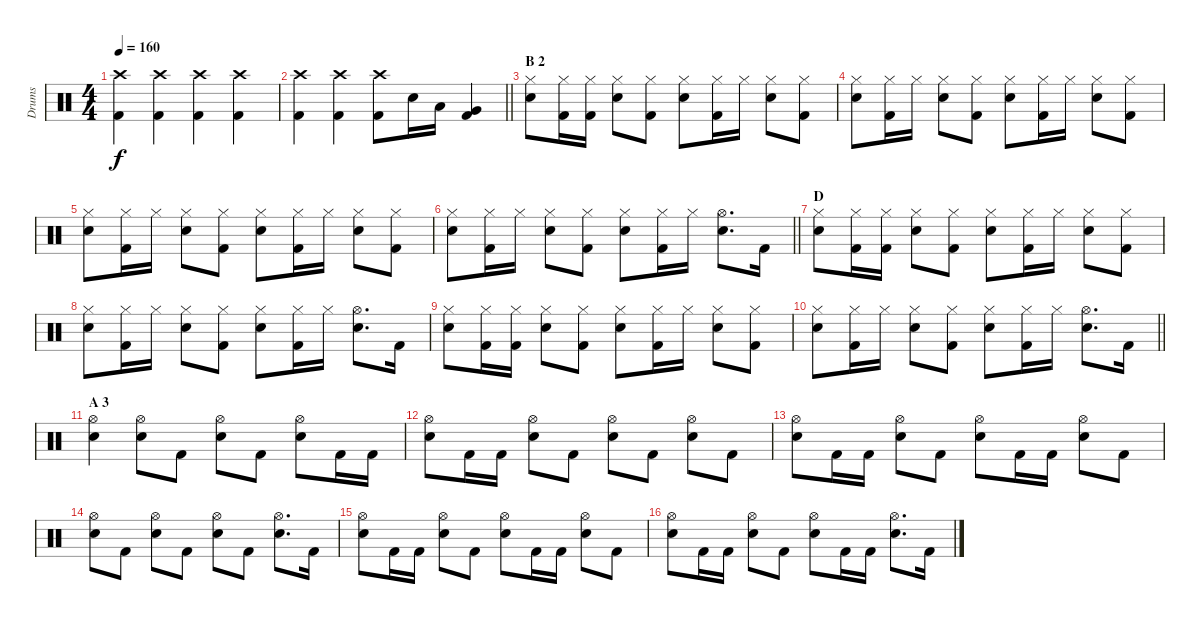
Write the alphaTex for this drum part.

\track ("Drums" "Drums") {instrument percussion}
\staff {score}
\articulation defaults
\ts (4 4)
\tempo 160
\clef neutral
\ks c
("Crash high (hit)" "Kick (hit) 2").4{dy f} ("Crash high (hit)" "Kick (hit) 2").4 ("Crash high (hit)" "Kick (hit) 2").4 ("Crash high (hit)" "Kick (hit) 2").4 |
\barLineRight lightlight
("Crash high (hit)" "Kick (hit) 2").4 ("Crash high (hit)" "Kick (hit) 2").4 ("Crash high (hit)" "Kick (hit) 2").8 "Snare (hit) 2".16 "Low Tom (hit)".16 ("Very Low Tom (hit)" "Kick (hit) 2").4 |
\section ("" "B 2")
("Hi-Hat (closed)" "Snare (hit) 2").8 ("Hi-Hat (closed)" "Kick (hit) 2").16 ("Hi-Hat (closed)" "Kick (hit) 2").16 ("Hi-Hat (closed)" "Snare (hit) 2").8 ("Hi-Hat (closed)" "Kick (hit) 2").8 ("Hi-Hat (closed)" "Snare (hit) 2").8 ("Hi-Hat (closed)" "Kick (hit) 2").16 "Hi-Hat (closed)".16 ("Hi-Hat (closed)" "Snare (hit) 2").8 ("Hi-Hat (closed)" "Kick (hit) 2").8 |
("Hi-Hat (closed)" "Snare (hit) 2").8 ("Hi-Hat (closed)" "Kick (hit) 2").16 "Hi-Hat (closed)".16 ("Hi-Hat (closed)" "Snare (hit) 2").8 ("Hi-Hat (closed)" "Kick (hit) 2").8 ("Hi-Hat (closed)" "Snare (hit) 2").8 ("Hi-Hat (closed)" "Kick (hit) 2").16 "Hi-Hat (closed)".16 ("Hi-Hat (closed)" "Snare (hit) 2").8 ("Hi-Hat (closed)" "Kick (hit) 2").8 |
("Hi-Hat (closed)" "Snare (hit) 2").8 ("Hi-Hat (closed)" "Kick (hit) 2").16 "Hi-Hat (closed)".16 ("Hi-Hat (closed)" "Snare (hit) 2").8 ("Hi-Hat (closed)" "Kick (hit) 2").8 ("Hi-Hat (closed)" "Snare (hit) 2").8 ("Hi-Hat (closed)" "Kick (hit) 2").16 "Hi-Hat (closed)".16 ("Hi-Hat (closed)" "Snare (hit) 2").8 ("Hi-Hat (closed)" "Kick (hit) 2").8 |
\barLineRight lightlight
("Hi-Hat (closed)" "Snare (hit) 2").8 ("Hi-Hat (closed)" "Kick (hit) 2").16 "Hi-Hat (closed)".16 ("Hi-Hat (closed)" "Snare (hit) 2").8 ("Hi-Hat (closed)" "Kick (hit) 2").8 ("Hi-Hat (closed)" "Snare (hit) 2").8 ("Hi-Hat (closed)" "Kick (hit) 2").16 "Hi-Hat (closed)".16 ("Hi-Hat (open)" "Snare (hit) 2").8{d} "Kick (hit) 2".16 |
\section ("" "D")
("Hi-Hat (closed)" "Snare (hit) 2").8 ("Hi-Hat (closed)" "Kick (hit) 2").16 ("Hi-Hat (closed)" "Kick (hit) 2").16 ("Hi-Hat (closed)" "Snare (hit) 2").8 ("Hi-Hat (closed)" "Kick (hit) 2").8 ("Hi-Hat (closed)" "Snare (hit) 2").8 ("Hi-Hat (closed)" "Kick (hit) 2").16 "Hi-Hat (closed)".16 ("Hi-Hat (closed)" "Snare (hit) 2").8 ("Hi-Hat (closed)" "Kick (hit) 2").8 |
("Hi-Hat (closed)" "Snare (hit) 2").8 ("Hi-Hat (closed)" "Kick (hit) 2").16 "Hi-Hat (closed)".16 ("Hi-Hat (closed)" "Snare (hit) 2").8 ("Hi-Hat (closed)" "Kick (hit) 2").8 ("Hi-Hat (closed)" "Snare (hit) 2").8 ("Hi-Hat (closed)" "Kick (hit) 2").16 "Hi-Hat (closed)".16 ("Hi-Hat (open)" "Snare (hit) 2").8{d} "Kick (hit) 2".16 |
("Hi-Hat (closed)" "Snare (hit) 2").8 ("Hi-Hat (closed)" "Kick (hit) 2").16 ("Hi-Hat (closed)" "Kick (hit) 2").16 ("Hi-Hat (closed)" "Snare (hit) 2").8 ("Hi-Hat (closed)" "Kick (hit) 2").8 ("Hi-Hat (closed)" "Snare (hit) 2").8 ("Hi-Hat (closed)" "Kick (hit) 2").16 "Hi-Hat (closed)".16 ("Hi-Hat (closed)" "Snare (hit) 2").8 ("Hi-Hat (closed)" "Kick (hit) 2").8 |
\barLineRight lightlight
("Hi-Hat (closed)" "Snare (hit) 2").8 ("Hi-Hat (closed)" "Kick (hit) 2").16 "Hi-Hat (closed)".16 ("Hi-Hat (closed)" "Snare (hit) 2").8 ("Hi-Hat (closed)" "Kick (hit) 2").8 ("Hi-Hat (closed)" "Snare (hit) 2").8 ("Hi-Hat (closed)" "Kick (hit) 2").16 "Hi-Hat (closed)".16 ("Hi-Hat (open)" "Snare (hit) 2").8{d} "Kick (hit) 2".16 |
\section ("" "A 3")
("Hi-Hat (open)" "Snare (hit) 2").4 ("Hi-Hat (open)" "Snare (hit) 2").8 "Kick (hit) 2".8 ("Hi-Hat (open)" "Snare (hit) 2").8 "Kick (hit) 2".8 ("Hi-Hat (open)" "Snare (hit) 2").8 "Kick (hit) 2".16 "Kick (hit) 2".16 |
("Hi-Hat (open)" "Snare (hit) 2").8 "Kick (hit) 2".16 "Kick (hit) 2".16 ("Hi-Hat (open)" "Snare (hit) 2").8 "Kick (hit) 2".8 ("Hi-Hat (open)" "Snare (hit) 2").8 "Kick (hit) 2".8 ("Hi-Hat (open)" "Snare (hit) 2").8 "Kick (hit) 2".8 |
("Hi-Hat (open)" "Snare (hit) 2").8 "Kick (hit) 2".16 "Kick (hit) 2".16 ("Hi-Hat (open)" "Snare (hit) 2").8 "Kick (hit) 2".8 ("Hi-Hat (open)" "Snare (hit) 2").8 "Kick (hit) 2".16 "Kick (hit) 2".16 ("Hi-Hat (open)" "Snare (hit) 2").8 "Kick (hit) 2".8 |
("Hi-Hat (open)" "Snare (hit) 2").8 "Kick (hit) 2".8 ("Hi-Hat (open)" "Snare (hit) 2").8 "Kick (hit) 2".8 ("Hi-Hat (open)" "Snare (hit) 2").8 "Kick (hit) 2".8 ("Hi-Hat (open)" "Snare (hit) 2").8{d} "Kick (hit) 2".16 |
("Hi-Hat (open)" "Snare (hit) 2").8 "Kick (hit) 2".16 "Kick (hit) 2".16 ("Hi-Hat (open)" "Snare (hit) 2").8 "Kick (hit) 2".8 ("Hi-Hat (open)" "Snare (hit) 2").8 "Kick (hit) 2".16 "Kick (hit) 2".16 ("Hi-Hat (open)" "Snare (hit) 2").8 "Kick (hit) 2".8 |
("Hi-Hat (open)" "Snare (hit) 2").8 "Kick (hit) 2".16 "Kick (hit) 2".16 ("Hi-Hat (open)" "Snare (hit) 2").8 "Kick (hit) 2".8 ("Hi-Hat (open)" "Snare (hit) 2").8 "Kick (hit) 2".16 "Kick (hit) 2".16 ("Hi-Hat (open)" "Snare (hit) 2").8{d} "Kick (hit) 2".16
